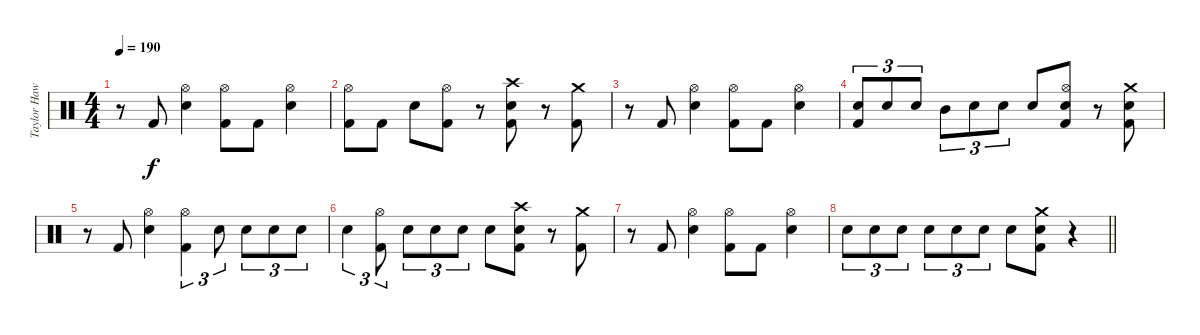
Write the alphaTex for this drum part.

\track ("Taylor Hawkins (Drums)" "Taylor Haw") {instrument percussion}
\staff {score}
\articulation defaults
\ts (4 4)
\tempo 190
\clef neutral
\ks c
r.8{dy f} "Kick (hit) 2".8 ("Hi-Hat (open)" "Snare (hit) 2").4 ("Hi-Hat (open)" "Kick (hit) 2").8 "Kick (hit) 2".8 ("Hi-Hat (open)" "Snare (hit) 2").4 |
("Hi-Hat (open)" "Kick (hit) 2").8 "Kick (hit) 2".8 "Snare (hit) 2".8 ("Hi-Hat (open)" "Kick (hit) 2").8 r.8 ("Crash high (hit)" "Snare (hit) 2" "Kick (hit) 2").8 r.8 ("Crash medium (hit)" "Kick (hit) 2").8 |
r.8 "Kick (hit) 2".8 ("Hi-Hat (open)" "Snare (hit) 2").4 ("Hi-Hat (open)" "Kick (hit) 2").8 "Kick (hit) 2".8 ("Hi-Hat (open)" "Snare (hit) 2").4 |
("Snare (hit) 2" "Kick (hit) 2").8{tu (3 2)} "Snare (hit) 2".8{tu (3 2)} "Snare (hit) 2".8{tu (3 2)} "Mid Tom (hit)".8{tu (3 2)} "Snare (hit) 2".8{tu (3 2)} "Snare (hit) 2".8{tu (3 2)} "Snare (hit) 2".8 ("Hi-Hat (open)" "Snare (hit) 2" "Kick (hit) 2").8 r.8 ("Crash medium (hit)" "Snare (hit) 2" "Kick (hit) 2").8 |
r.8 "Kick (hit) 2".8 ("Hi-Hat (open)" "Snare (hit) 2").4 ("Hi-Hat (open)" "Kick (hit) 2").4{tu (3 2)} "Snare (hit) 2".8{tu (3 2)} "Snare (hit) 2".8{tu (3 2)} "Snare (hit) 2".8{tu (3 2)} "Snare (hit) 2".8{tu (3 2)} |
"Snare (hit) 2".4{tu (3 2)} ("Hi-Hat (open)" "Kick (hit) 2").8{tu (3 2)} "Snare (hit) 2".8{tu (3 2)} "Snare (hit) 2".8{tu (3 2)} "Snare (hit) 2".8{tu (3 2)} "Snare (hit) 2".8 ("Crash high (hit)" "Snare (hit) 2" "Kick (hit) 2").8 r.8 ("Crash medium (hit)" "Kick (hit) 2").8 |
r.8 "Kick (hit) 2".8 ("Hi-Hat (open)" "Snare (hit) 2").4 ("Hi-Hat (open)" "Kick (hit) 2").8 "Kick (hit) 2".8 ("Hi-Hat (open)" "Snare (hit) 2").4 |
\barLineRight lightlight "Snare (hit) 2".8{tu (3 2)} "Snare (hit) 2".8{tu (3 2)} "Snare (hit) 2".8{tu (3 2)} "Snare (hit) 2".8{tu (3 2)} "Snare (hit) 2".8{tu (3 2)} "Snare (hit) 2".8{tu (3 2)} "Snare (hit) 2".8
("Crash medium (hit)" "Snare (hit) 2" "Kick (hit) 2").8 r.4
